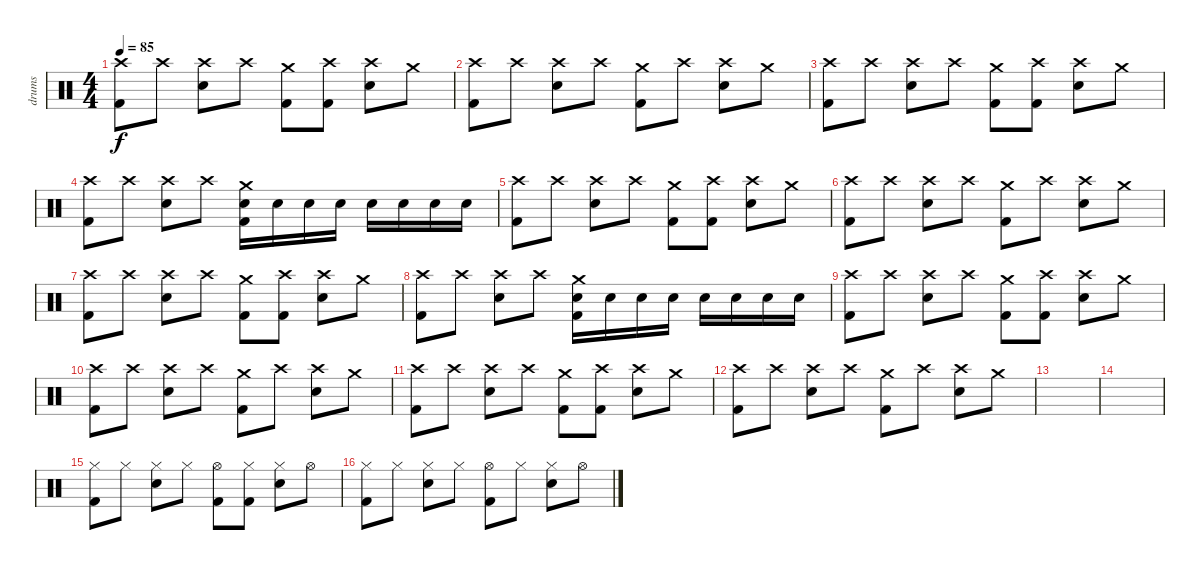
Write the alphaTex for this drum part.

\track ("drums" "drums") {instrument percussion}
\staff {score}
\articulation defaults
\ts (4 4)
\tempo 85
\clef neutral
\ks c
("Kick (hit) 2" "Crash high (hit)").8{dy f} "Crash high (hit)".8 ("Crash high (hit)" "Electric Snare (hit)").8 "Crash high (hit)".8 ("Kick (hit) 2" "Crash medium (hit)").8 ("Kick (hit) 2" "Crash high (hit)").8 ("Crash high (hit)" "Electric Snare (hit)").8 "Crash medium (hit)".8 |
("Kick (hit) 2" "Crash high (hit)").8 "Crash high (hit)".8 ("Crash high (hit)" "Electric Snare (hit)").8 "Crash high (hit)".8 ("Kick (hit) 2" "Crash medium (hit)").8 "Crash high (hit)".8 ("Crash high (hit)" "Electric Snare (hit)").8 "Crash medium (hit)".8 |
("Kick (hit) 2" "Crash high (hit)").8 "Crash high (hit)".8 ("Crash high (hit)" "Electric Snare (hit)").8 "Crash high (hit)".8 ("Kick (hit) 2" "Crash medium (hit)").8 ("Kick (hit) 2" "Crash high (hit)").8 ("Crash high (hit)" "Electric Snare (hit)").8 "Crash medium (hit)".8 |
("Kick (hit) 2" "Crash high (hit)").8 "Crash high (hit)".8 ("Crash high (hit)" "Electric Snare (hit)").8 "Crash high (hit)".8 ("Kick (hit) 2" "Crash medium (hit)" "Electric Snare (hit)").16 "Electric Snare (hit)".16 "Electric Snare (hit)".16 "Electric Snare (hit)".16 "Electric Snare (hit)".16 "Electric Snare (hit)".16 "Electric Snare (hit)".16 "Electric Snare (hit)".16 |
("Kick (hit) 2" "Crash high (hit)").8 "Crash high (hit)".8 ("Crash high (hit)" "Electric Snare (hit)").8 "Crash high (hit)".8 ("Kick (hit) 2" "Crash medium (hit)").8 ("Kick (hit) 2" "Crash high (hit)").8 ("Crash high (hit)" "Electric Snare (hit)").8 "Crash medium (hit)".8 |
("Kick (hit) 2" "Crash high (hit)").8 "Crash high (hit)".8 ("Crash high (hit)" "Electric Snare (hit)").8 "Crash high (hit)".8 ("Kick (hit) 2" "Crash medium (hit)").8 "Crash high (hit)".8 ("Crash high (hit)" "Electric Snare (hit)").8 "Crash medium (hit)".8 |
("Kick (hit) 2" "Crash high (hit)").8 "Crash high (hit)".8 ("Crash high (hit)" "Electric Snare (hit)").8 "Crash high (hit)".8 ("Kick (hit) 2" "Crash medium (hit)").8 ("Kick (hit) 2" "Crash high (hit)").8 ("Crash high (hit)" "Electric Snare (hit)").8 "Crash medium (hit)".8 |
("Kick (hit) 2" "Crash high (hit)").8 "Crash high (hit)".8 ("Crash high (hit)" "Electric Snare (hit)").8 "Crash high (hit)".8 ("Kick (hit) 2" "Crash medium (hit)" "Electric Snare (hit)").16 "Electric Snare (hit)".16 "Electric Snare (hit)".16 "Electric Snare (hit)".16 "Electric Snare (hit)".16 "Electric Snare (hit)".16 "Electric Snare (hit)".16 "Electric Snare (hit)".16 |
("Kick (hit) 2" "Crash high (hit)").8 "Crash high (hit)".8 ("Crash high (hit)" "Electric Snare (hit)").8 "Crash high (hit)".8 ("Kick (hit) 2" "Crash medium (hit)").8 ("Kick (hit) 2" "Crash high (hit)").8 ("Crash high (hit)" "Electric Snare (hit)").8 "Crash medium (hit)".8 |
("Kick (hit) 2" "Crash high (hit)").8 "Crash high (hit)".8 ("Crash high (hit)" "Electric Snare (hit)").8 "Crash high (hit)".8 ("Kick (hit) 2" "Crash medium (hit)").8 "Crash high (hit)".8 ("Crash high (hit)" "Electric Snare (hit)").8 "Crash medium (hit)".8 |
("Kick (hit) 2" "Crash high (hit)").8 "Crash high (hit)".8 ("Crash high (hit)" "Electric Snare (hit)").8 "Crash high (hit)".8 ("Kick (hit) 2" "Crash medium (hit)").8 ("Kick (hit) 2" "Crash high (hit)").8 ("Crash high (hit)" "Electric Snare (hit)").8 "Crash medium (hit)".8 |
("Kick (hit) 2" "Crash high (hit)").8 "Crash high (hit)".8 ("Crash high (hit)" "Electric Snare (hit)").8 "Crash high (hit)".8 ("Kick (hit) 2" "Crash medium (hit)").8 "Crash high (hit)".8 ("Crash high (hit)" "Electric Snare (hit)").8 "Crash medium (hit)".8 |
|
|
("Kick (hit) 2" "Hi-Hat (closed)").8 "Hi-Hat (closed)".8 ("Hi-Hat (closed)" "Electric Snare (hit)").8 "Hi-Hat (closed)".8 ("Kick (hit) 2" "Hi-Hat (open)").8 ("Kick (hit) 2" "Hi-Hat (closed)").8 ("Hi-Hat (closed)" "Electric Snare (hit)").8 "Hi-Hat (open)".8 |
("Kick (hit) 2" "Hi-Hat (closed)").8 "Hi-Hat (closed)".8 ("Hi-Hat (closed)" "Electric Snare (hit)").8 "Hi-Hat (closed)".8 ("Kick (hit) 2" "Hi-Hat (open)").8 "Hi-Hat (closed)".8 ("Hi-Hat (closed)" "Electric Snare (hit)").8 "Hi-Hat (open)".8
